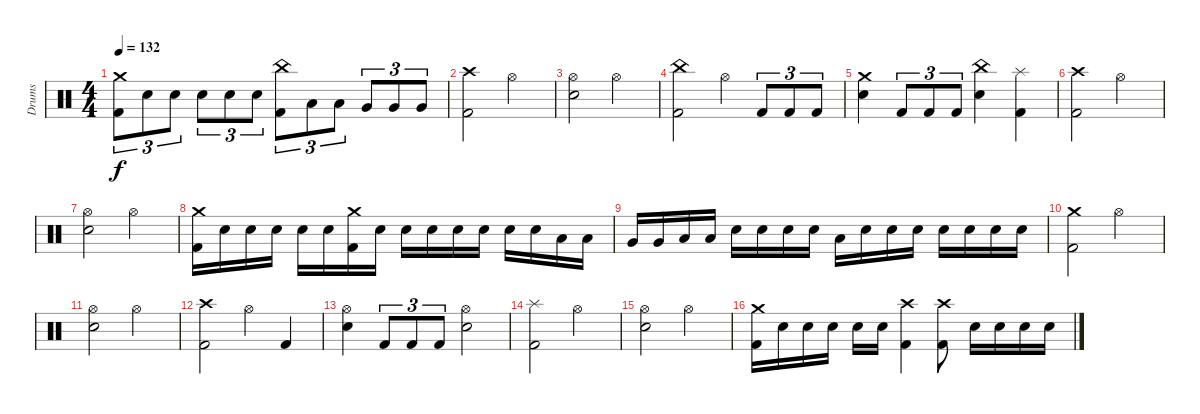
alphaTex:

\track ("Drums" "Drums") {instrument percussion}
\staff {score}
\articulation defaults
\ts (4 4)
\tempo 132
\clef neutral
\ks c
("Crash medium (hit)" "Kick (hit) 2").8{tu (3 2) dy f} "Electric Snare (hit)".8{tu (3 2)} "Electric Snare (hit)".8{tu (3 2)} "Electric Snare (hit)".8{tu (3 2)} "Electric Snare (hit)".8{tu (3 2)} "Electric Snare (hit)".8{tu (3 2)} ("China (hit)" "Kick (hit) 2").8{tu (3 2)} "Low Tom (hit)".8{tu (3 2)} "Low Tom (hit)".8{tu (3 2)} "Very Low Tom (hit)".8{tu (3 2)} "Very Low Tom (hit)".8{tu (3 2)} "Very Low Tom (hit)".8{tu (3 2)} |
("Crash high (hit)" "Kick (hit) 2").2 "Hi-Hat (open)".2 |
("Hi-Hat (open)" "Electric Snare (hit)").2 "Hi-Hat (open)".2 |
("China (hit)" "Kick (hit) 2").2 "Hi-Hat (open)".4 "Kick (hit) 2".8{tu (3 2)} "Kick (hit) 2".8{tu (3 2)} "Kick (hit) 2".8{tu (3 2)} |
("Crash medium (hit)" "Electric Snare (hit)").4 "Kick (hit) 2".8{tu (3 2)} "Kick (hit) 2".8{tu (3 2)} "Kick (hit) 2".8{tu (3 2)} ("China (hit)" "Electric Snare (hit)").4 ("Splash (hit)" "Kick (hit) 2").4 |
("Crash high (hit)" "Kick (hit) 2").2 "Hi-Hat (open)".2 |
("Hi-Hat (open)" "Electric Snare (hit)").2 "Hi-Hat (open)".2 |
("Crash medium (hit)" "Kick (hit) 2").16 "Electric Snare (hit)".16 "Electric Snare (hit)".16 "Electric Snare (hit)".16 "Electric Snare (hit)".16 "Electric Snare (hit)".16 ("Crash medium (hit)" "Kick (hit) 2").16 "Electric Snare (hit)".16 "Electric Snare (hit)".16 "Electric Snare (hit)".16 "Electric Snare (hit)".16 "Electric Snare (hit)".16 "Electric Snare (hit)".16 "Electric Snare (hit)".16 "Low Tom (hit)".16 "Low Tom (hit)".16 |
"Very Low Tom (hit)".16 "Very Low Tom (hit)".16 "Low Floor Tom (hit)".16 "Low Floor Tom (hit)".16 "Electric Snare (hit)".16 "Electric Snare (hit)".16 "Electric Snare (hit)".16 "Electric Snare (hit)".16 "Low Tom (hit)".16 "Electric Snare (hit)".16 "Electric Snare (hit)".16 "Electric Snare (hit)".16 "Electric Snare (hit)".16 "Electric Snare (hit)".16 "Electric Snare (hit)".16 "Electric Snare (hit)".16 |
("Crash medium (hit)" "Kick (hit) 2").2 "Hi-Hat (open)".2 |
("Hi-Hat (open)" "Electric Snare (hit)").2 "Hi-Hat (open)".2 |
("Crash high (hit)" "Kick (hit) 2").2 "Hi-Hat (open)".4 "Kick (hit) 2".4 |
("Hi-Hat (open)" "Electric Snare (hit)").4 "Kick (hit) 2".8{tu (3 2)} "Kick (hit) 2".8{tu (3 2)} "Kick (hit) 2".8{tu (3 2)} ("Hi-Hat (open)" "Electric Snare (hit)").2 |
("Splash (hit)" "Kick (hit) 2").2 "Hi-Hat (open)".2 |
("Hi-Hat (open)" "Electric Snare (hit)").2 "Hi-Hat (open)".2 |
("Crash medium (hit)" "Kick (hit) 2").16 "Electric Snare (hit)".16 "Electric Snare (hit)".16 "Electric Snare (hit)".16 "Electric Snare (hit)".16 "Electric Snare (hit)".16 ("Crash high (hit)" "Kick (hit) 2").4 ("Crash high (hit)" "Kick (hit) 2").8 "Electric Snare (hit)".16 "Electric Snare (hit)".16 "Electric Snare (hit)".16 "Electric Snare (hit)".16
